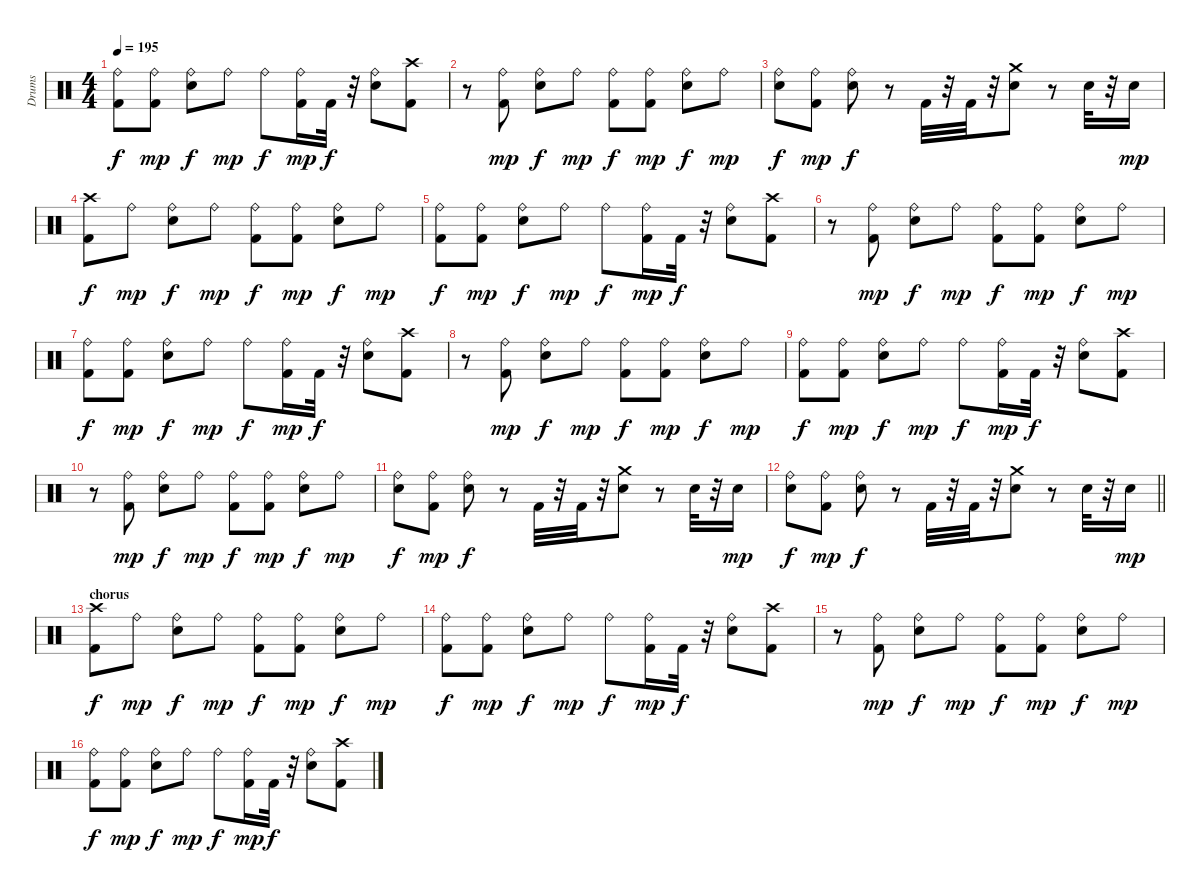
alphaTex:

\track ("Drums" "Drums") {instrument percussion}
\staff {score}
\articulation defaults
\ts (4 4)
\tempo 195
\clef neutral
\ks c
("Kick (hit) 2" "Ride (bell)").8{dy f} ("Kick (hit) 2" "Ride (bell)").8{dy mp} ("Electric Snare (hit)" "Ride (bell)").8{dy f} "Ride (bell)".8{dy mp} "Ride (bell)".8{dy f} ("Kick (hit) 2" "Ride (bell)").16{dy mp} "Kick (hit) 2".32{dy f} r.32 ("Electric Snare (hit)" "Ride (bell)").8 ("Kick (hit) 2" "Crash high (hit)").8 |
r.8 ("Kick (hit) 2" "Ride (bell)").8{dy mp} ("Electric Snare (hit)" "Ride (bell)").8{dy f} "Ride (bell)".8{dy mp} ("Kick (hit) 2" "Ride (bell)").8{dy f} ("Kick (hit) 2" "Ride (bell)").8{dy mp} ("Electric Snare (hit)" "Ride (bell)").8{dy f} "Ride (bell)".8{dy mp} |
("Electric Snare (hit)" "Ride (bell)").8{dy f} ("Kick (hit) 2" "Ride (bell)").8{dy mp} ("Electric Snare (hit)" "Ride (bell)").8{dy f} r.8 "Kick (hit) 2".32 r.32 "Kick (hit) 2".32 r.32 ("Electric Snare (hit)" "Crash medium (hit)").8 r.8 "Electric Snare (hit)".32 r.32 "Electric Snare (hit)".16{dy mp} |
("Kick (hit) 2" "Crash high (hit)").8{dy f} "Ride (bell)".8{dy mp} ("Electric Snare (hit)" "Ride (bell)").8{dy f} "Ride (bell)".8{dy mp} ("Kick (hit) 2" "Ride (bell)").8{dy f} ("Kick (hit) 2" "Ride (bell)").8{dy mp} ("Electric Snare (hit)" "Ride (bell)").8{dy f} "Ride (bell)".8{dy mp} |
("Kick (hit) 2" "Ride (bell)").8{dy f} ("Kick (hit) 2" "Ride (bell)").8{dy mp} ("Electric Snare (hit)" "Ride (bell)").8{dy f} "Ride (bell)".8{dy mp} "Ride (bell)".8{dy f} ("Kick (hit) 2" "Ride (bell)").16{dy mp} "Kick (hit) 2".32{dy f} r.32 ("Electric Snare (hit)" "Ride (bell)").8 ("Kick (hit) 2" "Crash high (hit)").8 |
r.8 ("Kick (hit) 2" "Ride (bell)").8{dy mp} ("Electric Snare (hit)" "Ride (bell)").8{dy f} "Ride (bell)".8{dy mp} ("Kick (hit) 2" "Ride (bell)").8{dy f} ("Kick (hit) 2" "Ride (bell)").8{dy mp} ("Electric Snare (hit)" "Ride (bell)").8{dy f} "Ride (bell)".8{dy mp} |
("Kick (hit) 2" "Ride (bell)").8{dy f} ("Kick (hit) 2" "Ride (bell)").8{dy mp} ("Electric Snare (hit)" "Ride (bell)").8{dy f} "Ride (bell)".8{dy mp} "Ride (bell)".8{dy f} ("Kick (hit) 2" "Ride (bell)").16{dy mp} "Kick (hit) 2".32{dy f} r.32 ("Electric Snare (hit)" "Ride (bell)").8 ("Kick (hit) 2" "Crash high (hit)").8 |
r.8 ("Kick (hit) 2" "Ride (bell)").8{dy mp} ("Electric Snare (hit)" "Ride (bell)").8{dy f} "Ride (bell)".8{dy mp} ("Kick (hit) 2" "Ride (bell)").8{dy f} ("Kick (hit) 2" "Ride (bell)").8{dy mp} ("Electric Snare (hit)" "Ride (bell)").8{dy f} "Ride (bell)".8{dy mp} |
("Kick (hit) 2" "Ride (bell)").8{dy f} ("Kick (hit) 2" "Ride (bell)").8{dy mp} ("Electric Snare (hit)" "Ride (bell)").8{dy f} "Ride (bell)".8{dy mp} "Ride (bell)".8{dy f} ("Kick (hit) 2" "Ride (bell)").16{dy mp} "Kick (hit) 2".32{dy f} r.32 ("Electric Snare (hit)" "Ride (bell)").8 ("Kick (hit) 2" "Crash high (hit)").8 |
r.8 ("Kick (hit) 2" "Ride (bell)").8{dy mp} ("Electric Snare (hit)" "Ride (bell)").8{dy f} "Ride (bell)".8{dy mp} ("Kick (hit) 2" "Ride (bell)").8{dy f} ("Kick (hit) 2" "Ride (bell)").8{dy mp} ("Electric Snare (hit)" "Ride (bell)").8{dy f} "Ride (bell)".8{dy mp} |
("Electric Snare (hit)" "Ride (bell)").8{dy f} ("Kick (hit) 2" "Ride (bell)").8{dy mp} ("Electric Snare (hit)" "Ride (bell)").8{dy f} r.8 "Kick (hit) 2".32 r.32 "Kick (hit) 2".32 r.32 ("Electric Snare (hit)" "Crash medium (hit)").8 r.8 "Electric Snare (hit)".32 r.32 "Electric Snare (hit)".16{dy mp} |
\barLineRight lightlight
("Electric Snare (hit)" "Ride (bell)").8{dy f} ("Kick (hit) 2" "Ride (bell)").8{dy mp} ("Electric Snare (hit)" "Ride (bell)").8{dy f} r.8 "Kick (hit) 2".32 r.32 "Kick (hit) 2".32 r.32 ("Electric Snare (hit)" "Crash medium (hit)").8 r.8 "Electric Snare (hit)".32 r.32 "Electric Snare (hit)".16{dy mp} |
\section ("" "chorus")
("Kick (hit) 2" "Crash high (hit)").8{dy f} "Ride (bell)".8{dy mp} ("Electric Snare (hit)" "Ride (bell)").8{dy f} "Ride (bell)".8{dy mp} ("Kick (hit) 2" "Ride (bell)").8{dy f} ("Kick (hit) 2" "Ride (bell)").8{dy mp} ("Electric Snare (hit)" "Ride (bell)").8{dy f} "Ride (bell)".8{dy mp} |
("Kick (hit) 2" "Ride (bell)").8{dy f} ("Kick (hit) 2" "Ride (bell)").8{dy mp} ("Electric Snare (hit)" "Ride (bell)").8{dy f} "Ride (bell)".8{dy mp} "Ride (bell)".8{dy f} ("Kick (hit) 2" "Ride (bell)").16{dy mp} "Kick (hit) 2".32{dy f} r.32 ("Electric Snare (hit)" "Ride (bell)").8 ("Kick (hit) 2" "Crash high (hit)").8 |
r.8 ("Kick (hit) 2" "Ride (bell)").8{dy mp} ("Electric Snare (hit)" "Ride (bell)").8{dy f} "Ride (bell)".8{dy mp} ("Kick (hit) 2" "Ride (bell)").8{dy f} ("Kick (hit) 2" "Ride (bell)").8{dy mp} ("Electric Snare (hit)" "Ride (bell)").8{dy f} "Ride (bell)".8{dy mp} |
("Kick (hit) 2" "Ride (bell)").8{dy f} ("Kick (hit) 2" "Ride (bell)").8{dy mp} ("Electric Snare (hit)" "Ride (bell)").8{dy f} "Ride (bell)".8{dy mp} "Ride (bell)".8{dy f} ("Kick (hit) 2" "Ride (bell)").16{dy mp} "Kick (hit) 2".32{dy f} r.32 ("Electric Snare (hit)" "Ride (bell)").8 ("Kick (hit) 2" "Crash high (hit)").8
